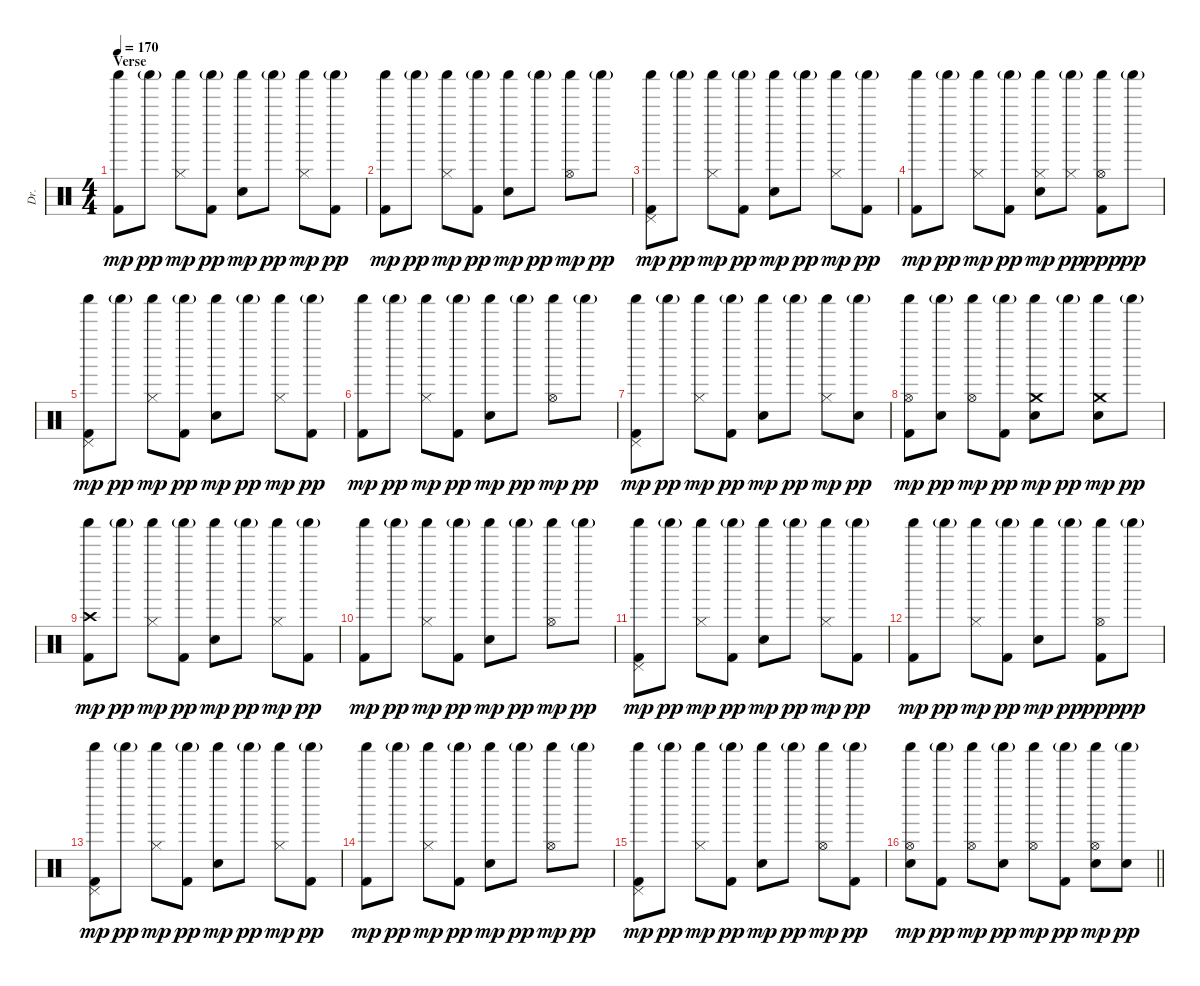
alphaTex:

\track ("Dr." "Dr.") {instrument percussion}
\staff {score}
\articulation defaults
\ts (4 4)
\section ("" "Verse")
\tempo 170
\clef neutral
\ks c
("Shaker (hit)" "Kick (hit) 2").8{dy mp} "Shaker (hit)"{g}.8{dy pp} ("Hi-Hat (closed)" "Shaker (hit)").8{dy mp} ("Shaker (hit)"{g} "Kick (hit) 2").8{dy pp} ("Shaker (hit)" "Electric Snare (hit)").8{dy mp} "Shaker (hit)"{g}.8{dy pp} ("Hi-Hat (closed)" "Shaker (hit)").8{dy mp} ("Shaker (hit)"{g} "Kick (hit) 2").8{dy pp} |
("Shaker (hit)" "Kick (hit) 2").8{dy mp} "Shaker (hit)"{g}.8{dy pp} ("Hi-Hat (closed)" "Shaker (hit)").8{dy mp} ("Shaker (hit)"{g} "Kick (hit) 2").8{dy pp} ("Shaker (hit)" "Electric Snare (hit)").8{dy mp} "Shaker (hit)"{g}.8{dy pp} ("Hi-Hat (open)" "Shaker (hit)").8{dy mp} "Shaker (hit)"{g}.8{dy pp} |
("Pedal Hi-Hat (hit)" "Shaker (hit)" "Kick (hit) 2").8{dy mp} "Shaker (hit)"{g}.8{dy pp} ("Hi-Hat (closed)" "Shaker (hit)").8{dy mp} ("Shaker (hit)"{g} "Kick (hit) 2").8{dy pp} ("Shaker (hit)" "Electric Snare (hit)").8{dy mp} "Shaker (hit)"{g}.8{dy pp} ("Hi-Hat (closed)" "Shaker (hit)").8{dy mp} ("Shaker (hit)"{g} "Kick (hit) 2").8{dy pp} |
("Shaker (hit)" "Kick (hit) 2").8{dy mp} "Shaker (hit)"{g}.8{dy pp} ("Hi-Hat (closed)" "Shaker (hit)").8{dy mp} ("Shaker (hit)"{g} "Kick (hit) 2").8{dy pp} ("Hi-Hat (closed)" "Shaker (hit)" "Electric Snare (hit)").8{dy mp} ("Hi-Hat (closed)" "Shaker (hit)"{g}).8{dy pp} ("Hi-Hat (open)" "Shaker (hit)" "Kick (hit) 2").8{dy ppp} "Shaker (hit)"{g}.8{dy pp} |
("Pedal Hi-Hat (hit)" "Shaker (hit)" "Kick (hit) 2").8{dy mp} "Shaker (hit)"{g}.8{dy pp} ("Hi-Hat (closed)" "Shaker (hit)").8{dy mp} ("Shaker (hit)"{g} "Kick (hit) 2").8{dy pp} ("Shaker (hit)" "Electric Snare (hit)").8{dy mp} "Shaker (hit)"{g}.8{dy pp} ("Hi-Hat (closed)" "Shaker (hit)").8{dy mp} ("Shaker (hit)"{g} "Kick (hit) 2").8{dy pp} |
("Shaker (hit)" "Kick (hit) 2").8{dy mp} "Shaker (hit)"{g}.8{dy pp} ("Hi-Hat (closed)" "Shaker (hit)").8{dy mp} ("Shaker (hit)"{g} "Kick (hit) 2").8{dy pp} ("Shaker (hit)" "Electric Snare (hit)").8{dy mp} "Shaker (hit)"{g}.8{dy pp} ("Hi-Hat (open)" "Shaker (hit)").8{dy mp} "Shaker (hit)"{g}.8{dy pp} |
("Pedal Hi-Hat (hit)" "Shaker (hit)" "Kick (hit) 2").8{dy mp} "Shaker (hit)"{g}.8{dy pp} ("Hi-Hat (closed)" "Shaker (hit)").8{dy mp} ("Shaker (hit)"{g} "Kick (hit) 2").8{dy pp} ("Shaker (hit)" "Electric Snare (hit)").8{dy mp} "Shaker (hit)"{g}.8{dy pp} ("Hi-Hat (closed)" "Shaker (hit)").8{dy mp} ("Shaker (hit)"{g} "Electric Snare (hit)").8{dy pp} |
("Hi-Hat (open)" "Shaker (hit)" "Kick (hit) 2").8{dy mp} ("Shaker (hit)"{g} "Electric Snare (hit)").8{dy pp} ("Hi-Hat (open)" "Shaker (hit)").8{dy mp} ("Shaker (hit)"{g} "Kick (hit) 2").8{dy pp} ("Crash medium (hit)" "Shaker (hit)" "Electric Snare (hit)").8{dy mp} "Shaker (hit)"{g}.8{dy pp} ("Crash medium (hit)" "Shaker (hit)" "Electric Snare (hit)").8{dy mp} "Shaker (hit)"{g}.8{dy pp} |
("Crash high (hit)" "Shaker (hit)" "Kick (hit) 2").8{dy mp} "Shaker (hit)"{g}.8{dy pp} ("Hi-Hat (closed)" "Shaker (hit)").8{dy mp} ("Shaker (hit)"{g} "Kick (hit) 2").8{dy pp} ("Shaker (hit)" "Electric Snare (hit)").8{dy mp} "Shaker (hit)"{g}.8{dy pp} ("Hi-Hat (closed)" "Shaker (hit)").8{dy mp} ("Shaker (hit)"{g} "Kick (hit) 2").8{dy pp} |
("Shaker (hit)" "Kick (hit) 2").8{dy mp} "Shaker (hit)"{g}.8{dy pp} ("Hi-Hat (closed)" "Shaker (hit)").8{dy mp} ("Shaker (hit)"{g} "Kick (hit) 2").8{dy pp} ("Shaker (hit)" "Electric Snare (hit)").8{dy mp} "Shaker (hit)"{g}.8{dy pp} ("Hi-Hat (open)" "Shaker (hit)").8{dy mp} "Shaker (hit)"{g}.8{dy pp} |
("Pedal Hi-Hat (hit)" "Shaker (hit)" "Kick (hit) 2").8{dy mp} "Shaker (hit)"{g}.8{dy pp} ("Hi-Hat (closed)" "Shaker (hit)").8{dy mp} ("Shaker (hit)"{g} "Kick (hit) 2").8{dy pp} ("Shaker (hit)" "Electric Snare (hit)").8{dy mp} "Shaker (hit)"{g}.8{dy pp} ("Hi-Hat (closed)" "Shaker (hit)").8{dy mp} ("Shaker (hit)"{g} "Kick (hit) 2").8{dy pp} |
("Shaker (hit)" "Kick (hit) 2").8{dy mp} "Shaker (hit)"{g}.8{dy pp} ("Hi-Hat (closed)" "Shaker (hit)").8{dy mp} ("Shaker (hit)"{g} "Kick (hit) 2").8{dy pp} ("Shaker (hit)" "Electric Snare (hit)").8{dy mp} "Shaker (hit)"{g}.8{dy pp} ("Hi-Hat (open)" "Shaker (hit)" "Kick (hit) 2").8{dy ppp} "Shaker (hit)"{g}.8{dy pp} |
("Pedal Hi-Hat (hit)" "Shaker (hit)" "Kick (hit) 2").8{dy mp} "Shaker (hit)"{g}.8{dy pp} ("Hi-Hat (closed)" "Shaker (hit)").8{dy mp} ("Shaker (hit)"{g} "Kick (hit) 2").8{dy pp} ("Shaker (hit)" "Electric Snare (hit)").8{dy mp} "Shaker (hit)"{g}.8{dy pp} ("Hi-Hat (closed)" "Shaker (hit)").8{dy mp} ("Shaker (hit)"{g} "Kick (hit) 2").8{dy pp} |
("Shaker (hit)" "Kick (hit) 2").8{dy mp} "Shaker (hit)"{g}.8{dy pp} ("Hi-Hat (closed)" "Shaker (hit)").8{dy mp} ("Shaker (hit)"{g} "Kick (hit) 2").8{dy pp} ("Shaker (hit)" "Electric Snare (hit)").8{dy mp} "Shaker (hit)"{g}.8{dy pp} ("Hi-Hat (open)" "Shaker (hit)").8{dy mp} "Shaker (hit)"{g}.8{dy pp} |
("Pedal Hi-Hat (hit)" "Shaker (hit)" "Kick (hit) 2").8{dy mp} "Shaker (hit)"{g}.8{dy pp} ("Hi-Hat (closed)" "Shaker (hit)").8{dy mp} ("Shaker (hit)"{g} "Kick (hit) 2").8{dy pp} ("Shaker (hit)" "Electric Snare (hit)").8{dy mp} "Shaker (hit)"{g}.8{dy pp} ("Hi-Hat (open)" "Shaker (hit)").8{dy mp} ("Shaker (hit)"{g} "Kick (hit) 2").8{dy pp} |
\barLineRight lightlight
("Hi-Hat (open)" "Shaker (hit)" "Electric Snare (hit)").8{dy mp} ("Shaker (hit)"{g} "Kick (hit) 2").8{dy pp} ("Hi-Hat (open)" "Shaker (hit)").8{dy mp} ("Shaker (hit)"{g} "Electric Snare (hit)").8{dy pp} ("Hi-Hat (open)" "Shaker (hit)").8{dy mp} ("Shaker (hit)"{g} "Kick (hit) 2").8{dy pp} ("Hi-Hat (open)" "Shaker (hit)" "Electric Snare (hit)").8{dy mp} ("Shaker (hit)"{g} "Electric Snare (hit)").8{dy pp}
